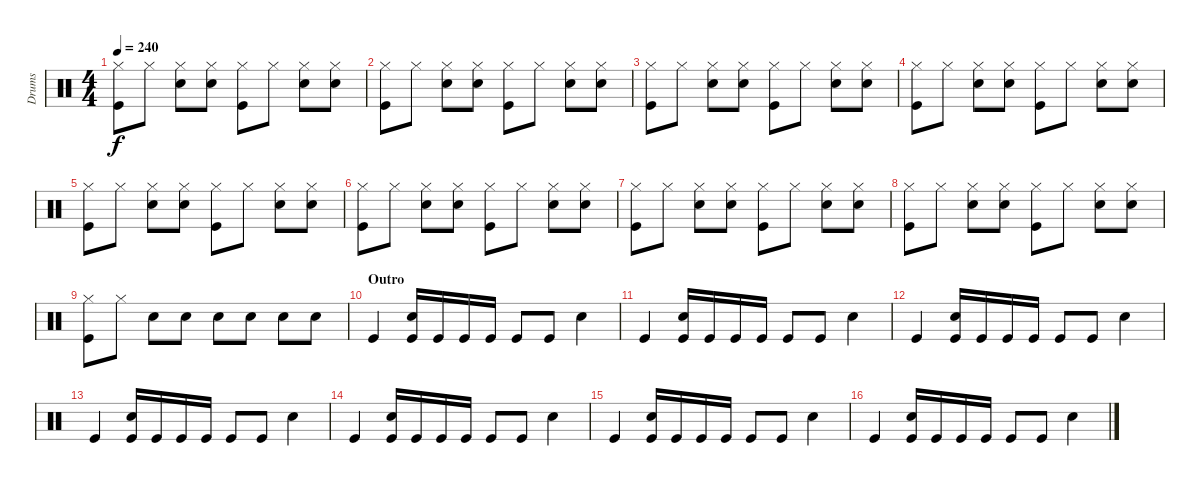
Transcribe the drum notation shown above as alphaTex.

\track ("Drums" "Drums") {instrument percussion}
\staff {score}
\articulation defaults
\ts (4 4)
\tempo 240
\clef neutral
\ks c
("Kick (hit)" "Hi-Hat (closed)").8{dy f} "Hi-Hat (closed)".8 ("Snare (hit) 2" "Hi-Hat (closed)").8 ("Snare (hit) 2" "Hi-Hat (closed)").8 ("Kick (hit)" "Hi-Hat (closed)").8 "Hi-Hat (closed)".8 ("Snare (hit) 2" "Hi-Hat (closed)").8 ("Snare (hit) 2" "Hi-Hat (closed)").8 |
("Kick (hit)" "Hi-Hat (closed)").8 "Hi-Hat (closed)".8 ("Snare (hit) 2" "Hi-Hat (closed)").8 ("Snare (hit) 2" "Hi-Hat (closed)").8 ("Kick (hit)" "Hi-Hat (closed)").8 "Hi-Hat (closed)".8 ("Snare (hit) 2" "Hi-Hat (closed)").8 ("Snare (hit) 2" "Hi-Hat (closed)").8 |
("Kick (hit)" "Hi-Hat (closed)").8 "Hi-Hat (closed)".8 ("Snare (hit) 2" "Hi-Hat (closed)").8 ("Snare (hit) 2" "Hi-Hat (closed)").8 ("Kick (hit)" "Hi-Hat (closed)").8 "Hi-Hat (closed)".8 ("Snare (hit) 2" "Hi-Hat (closed)").8 ("Snare (hit) 2" "Hi-Hat (closed)").8 |
("Kick (hit)" "Hi-Hat (closed)").8 "Hi-Hat (closed)".8 ("Snare (hit) 2" "Hi-Hat (closed)").8 ("Snare (hit) 2" "Hi-Hat (closed)").8 ("Kick (hit)" "Hi-Hat (closed)").8 "Hi-Hat (closed)".8 ("Snare (hit) 2" "Hi-Hat (closed)").8 ("Snare (hit) 2" "Hi-Hat (closed)").8 |
("Kick (hit)" "Hi-Hat (closed)").8 "Hi-Hat (closed)".8 ("Snare (hit) 2" "Hi-Hat (closed)").8 ("Snare (hit) 2" "Hi-Hat (closed)").8 ("Kick (hit)" "Hi-Hat (closed)").8 "Hi-Hat (closed)".8 ("Snare (hit) 2" "Hi-Hat (closed)").8 ("Snare (hit) 2" "Hi-Hat (closed)").8 |
("Kick (hit)" "Hi-Hat (closed)").8 "Hi-Hat (closed)".8 ("Snare (hit) 2" "Hi-Hat (closed)").8 ("Snare (hit) 2" "Hi-Hat (closed)").8 ("Kick (hit)" "Hi-Hat (closed)").8 "Hi-Hat (closed)".8 ("Snare (hit) 2" "Hi-Hat (closed)").8 ("Snare (hit) 2" "Hi-Hat (closed)").8 |
("Kick (hit)" "Hi-Hat (closed)").8 "Hi-Hat (closed)".8 ("Snare (hit) 2" "Hi-Hat (closed)").8 ("Snare (hit) 2" "Hi-Hat (closed)").8 ("Kick (hit)" "Hi-Hat (closed)").8 "Hi-Hat (closed)".8 ("Snare (hit) 2" "Hi-Hat (closed)").8 ("Snare (hit) 2" "Hi-Hat (closed)").8 |
("Kick (hit)" "Hi-Hat (closed)").8 "Hi-Hat (closed)".8 ("Snare (hit) 2" "Hi-Hat (closed)").8 ("Snare (hit) 2" "Hi-Hat (closed)").8 ("Kick (hit)" "Hi-Hat (closed)").8 "Hi-Hat (closed)".8 ("Snare (hit) 2" "Hi-Hat (closed)").8 ("Snare (hit) 2" "Hi-Hat (closed)").8 |
("Kick (hit)" "Hi-Hat (closed)").8 "Hi-Hat (closed)".8 "Snare (hit) 2".8 "Snare (hit) 2".8 "Snare (hit) 2".8 "Snare (hit) 2".8 "Snare (hit) 2".8 "Snare (hit) 2".8 |
\section ("" "Outro")
"Kick (hit)".4 ("Kick (hit)" "Snare (hit) 2").16 "Kick (hit)".16 "Kick (hit)".16 "Kick (hit)".16 "Kick (hit)".8 "Kick (hit)".8 "Snare (hit) 2".4 |
"Kick (hit)".4 ("Kick (hit)" "Snare (hit) 2").16 "Kick (hit)".16 "Kick (hit)".16 "Kick (hit)".16 "Kick (hit)".8 "Kick (hit)".8 "Snare (hit) 2".4 |
"Kick (hit)".4 ("Kick (hit)" "Snare (hit) 2").16 "Kick (hit)".16 "Kick (hit)".16 "Kick (hit)".16 "Kick (hit)".8 "Kick (hit)".8 "Snare (hit) 2".4 |
"Kick (hit)".4 ("Kick (hit)" "Snare (hit) 2").16 "Kick (hit)".16 "Kick (hit)".16 "Kick (hit)".16 "Kick (hit)".8 "Kick (hit)".8 "Snare (hit) 2".4 |
"Kick (hit)".4 ("Kick (hit)" "Snare (hit) 2").16 "Kick (hit)".16 "Kick (hit)".16 "Kick (hit)".16 "Kick (hit)".8 "Kick (hit)".8 "Snare (hit) 2".4 |
"Kick (hit)".4 ("Kick (hit)" "Snare (hit) 2").16 "Kick (hit)".16 "Kick (hit)".16 "Kick (hit)".16 "Kick (hit)".8 "Kick (hit)".8 "Snare (hit) 2".4 |
"Kick (hit)".4 ("Kick (hit)" "Snare (hit) 2").16 "Kick (hit)".16 "Kick (hit)".16 "Kick (hit)".16 "Kick (hit)".8 "Kick (hit)".8 "Snare (hit) 2".4
